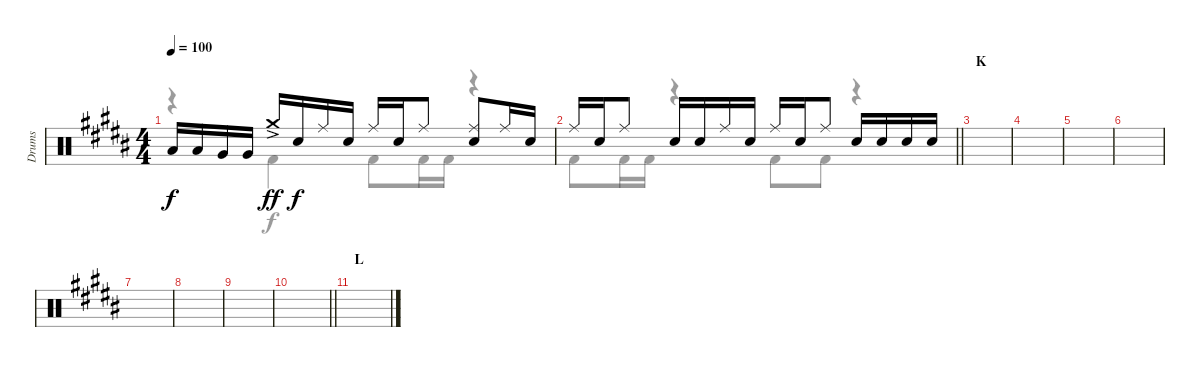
\track ("Drums" "Drums") {instrument percussion}
\staff {score}
\articulation defaults
\voice
\ts (4 4)
\tempo 100
\clef neutral
\ks b "Low Tom (hit)".16{dy f} "Low Tom (hit)".16 "Very Low Tom (hit)".16 "Very Low Tom (hit)".16 "Crash medium (hit)"{ac}.16{dy ff} "Electric Snare (hit)".16{dy f} "Ride (middle)".16 "Electric Snare (hit)".16 "Ride (middle)".16 "Electric Snare (hit)".16 "Ride (middle)".8
("Ride (middle)" "Electric Snare (hit)").8 "Ride (middle)".16 "Electric Snare (hit)".16 |
\barLineRight lightlight "Ride (middle)".16 "Electric Snare (hit)".16 "Ride (middle)".8 "Electric Snare (hit)".16 "Electric Snare (hit)".16 "Ride (middle)".16 "Electric Snare (hit)".16 "Ride (middle)".16 "Electric Snare (hit)".16 "Ride (middle)".8 "Electric Snare (hit)".16 "Electric Snare (hit)".16 "Electric Snare (hit)".16 "Electric Snare (hit)".16
|
\section ("" "K")
|
|
|
|
|
|
|
\barLineRight lightlight
|
\section ("" "L")
|
|
|
|
\voice
\clef neutral
\ottava regular
\simile none
\ks b
r.4{dy f} "Kick (hit) 2".4 "Kick (hit) 2".8 "Kick (hit) 2".16 "Kick (hit) 2".16 r.4 |
\barLineRight lightlight "Kick (hit) 2".8 "Kick (hit) 2".16 "Kick (hit) 2".16
r.4 "Kick (hit) 2".8 "Kick (hit) 2".8 r.4 |
|
|
|
|
|
|
|
\barLineRight lightlight
|
|
|
|
|
